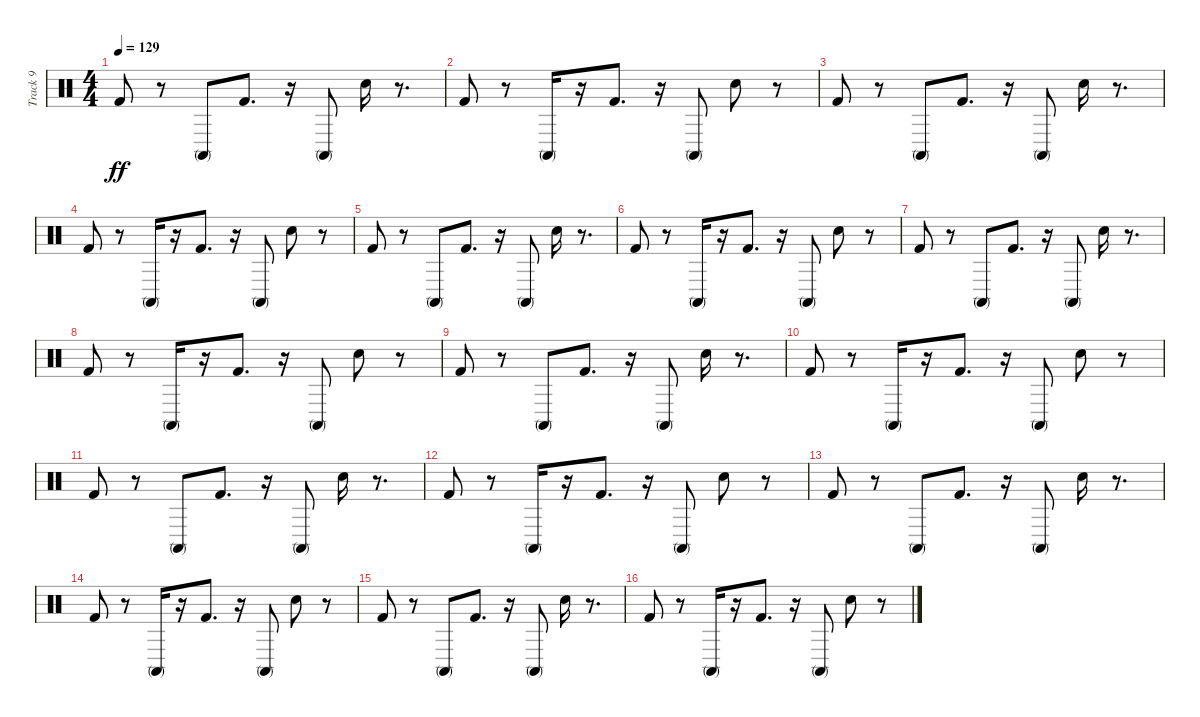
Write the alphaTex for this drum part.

\track ("Track 9" "Track 9") {instrument percussion}
\staff {score}
\articulation defaults
\ts (4 4)
\tempo 129
\clef neutral
\ks c "Kick (hit) 2".8{dy ff}
r.8 "Conga high (mute)".8 "Kick (hit) 2".8{d} r.16 "Conga high (mute)".8 "Snare (hit) 2".16 r.8{d} |
"Kick (hit) 2".8 r.8 "Conga high (mute)".16 r.16 "Kick (hit) 2".8{d} r.16 "Conga high (mute)".8 "Snare (hit) 2".8 r.8 |
"Kick (hit) 2".8 r.8 "Conga high (mute)".8 "Kick (hit) 2".8{d} r.16 "Conga high (mute)".8 "Snare (hit) 2".16 r.8{d} |
"Kick (hit) 2".8 r.8 "Conga high (mute)".16 r.16 "Kick (hit) 2".8{d} r.16 "Conga high (mute)".8 "Snare (hit) 2".8 r.8 |
"Kick (hit) 2".8 r.8 "Conga high (mute)".8 "Kick (hit) 2".8{d} r.16 "Conga high (mute)".8 "Snare (hit) 2".16 r.8{d} |
"Kick (hit) 2".8 r.8 "Conga high (mute)".16 r.16 "Kick (hit) 2".8{d} r.16 "Conga high (mute)".8 "Snare (hit) 2".8 r.8 |
"Kick (hit) 2".8 r.8 "Conga high (mute)".8 "Kick (hit) 2".8{d} r.16 "Conga high (mute)".8 "Snare (hit) 2".16 r.8{d} |
"Kick (hit) 2".8 r.8 "Conga high (mute)".16 r.16 "Kick (hit) 2".8{d} r.16 "Conga high (mute)".8 "Snare (hit) 2".8 r.8 |
"Kick (hit) 2".8 r.8 "Conga high (mute)".8 "Kick (hit) 2".8{d} r.16 "Conga high (mute)".8 "Snare (hit) 2".16 r.8{d} |
"Kick (hit) 2".8 r.8 "Conga high (mute)".16 r.16 "Kick (hit) 2".8{d} r.16 "Conga high (mute)".8 "Snare (hit) 2".8 r.8 |
"Kick (hit) 2".8 r.8 "Conga high (mute)".8 "Kick (hit) 2".8{d} r.16 "Conga high (mute)".8 "Snare (hit) 2".16 r.8{d} |
"Kick (hit) 2".8 r.8 "Conga high (mute)".16 r.16 "Kick (hit) 2".8{d} r.16 "Conga high (mute)".8 "Snare (hit) 2".8 r.8 |
"Kick (hit) 2".8 r.8 "Conga high (mute)".8 "Kick (hit) 2".8{d} r.16 "Conga high (mute)".8 "Snare (hit) 2".16 r.8{d} |
"Kick (hit) 2".8 r.8 "Conga high (mute)".16 r.16 "Kick (hit) 2".8{d} r.16 "Conga high (mute)".8 "Snare (hit) 2".8 r.8 |
"Kick (hit) 2".8 r.8 "Conga high (mute)".8 "Kick (hit) 2".8{d} r.16 "Conga high (mute)".8 "Snare (hit) 2".16 r.8{d} |
"Kick (hit) 2".8 r.8 "Conga high (mute)".16 r.16 "Kick (hit) 2".8{d} r.16 "Conga high (mute)".8 "Snare (hit) 2".8 r.8
